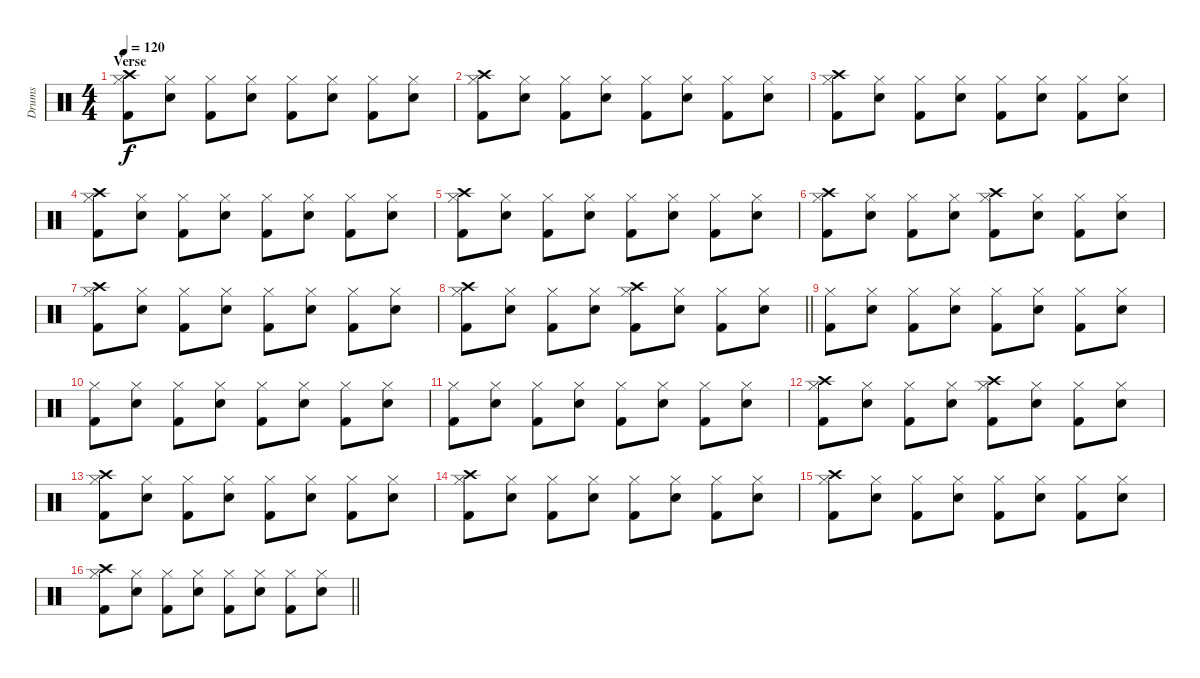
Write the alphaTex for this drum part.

\track ("Drums" "Drums") {instrument percussion}
\staff
\articulation defaults
\ts (4 4)
\section ("" "Verse")
\tempo 120
\clef neutral
\ks c
("Hi-Hat (closed)" "Kick (hit) 2" "Crash high (hit)").8{dy f} ("Hi-Hat (closed)" "Electric Snare (hit)").8 ("Hi-Hat (closed)" "Kick (hit) 2").8 ("Hi-Hat (closed)" "Electric Snare (hit)").8 ("Hi-Hat (closed)" "Kick (hit) 2").8 ("Hi-Hat (closed)" "Electric Snare (hit)").8 ("Hi-Hat (closed)" "Kick (hit) 2").8 ("Hi-Hat (closed)" "Electric Snare (hit)").8 |
("Hi-Hat (closed)" "Kick (hit) 2" "Crash high (hit)").8 ("Hi-Hat (closed)" "Electric Snare (hit)").8 ("Hi-Hat (closed)" "Kick (hit) 2").8 ("Hi-Hat (closed)" "Electric Snare (hit)").8 ("Hi-Hat (closed)" "Kick (hit) 2").8 ("Hi-Hat (closed)" "Electric Snare (hit)").8 ("Hi-Hat (closed)" "Kick (hit) 2").8 ("Hi-Hat (closed)" "Electric Snare (hit)").8 |
("Hi-Hat (closed)" "Kick (hit) 2" "Crash high (hit)").8 ("Hi-Hat (closed)" "Electric Snare (hit)").8 ("Hi-Hat (closed)" "Kick (hit) 2").8 ("Hi-Hat (closed)" "Electric Snare (hit)").8 ("Hi-Hat (closed)" "Kick (hit) 2").8 ("Hi-Hat (closed)" "Electric Snare (hit)").8 ("Hi-Hat (closed)" "Kick (hit) 2").8 ("Hi-Hat (closed)" "Electric Snare (hit)").8 |
("Hi-Hat (closed)" "Kick (hit) 2" "Crash high (hit)").8 ("Hi-Hat (closed)" "Electric Snare (hit)").8 ("Hi-Hat (closed)" "Kick (hit) 2").8 ("Hi-Hat (closed)" "Electric Snare (hit)").8 ("Hi-Hat (closed)" "Kick (hit) 2").8 ("Hi-Hat (closed)" "Electric Snare (hit)").8 ("Hi-Hat (closed)" "Kick (hit) 2").8 ("Hi-Hat (closed)" "Electric Snare (hit)").8 |
("Hi-Hat (closed)" "Kick (hit) 2" "Crash high (hit)").8 ("Hi-Hat (closed)" "Electric Snare (hit)").8 ("Hi-Hat (closed)" "Kick (hit) 2").8 ("Hi-Hat (closed)" "Electric Snare (hit)").8 ("Hi-Hat (closed)" "Kick (hit) 2").8 ("Hi-Hat (closed)" "Electric Snare (hit)").8 ("Hi-Hat (closed)" "Kick (hit) 2").8 ("Hi-Hat (closed)" "Electric Snare (hit)").8 |
("Hi-Hat (closed)" "Kick (hit) 2" "Crash high (hit)").8 ("Hi-Hat (closed)" "Electric Snare (hit)").8 ("Hi-Hat (closed)" "Kick (hit) 2").8 ("Hi-Hat (closed)" "Electric Snare (hit)").8 ("Hi-Hat (closed)" "Kick (hit) 2" "Crash high (hit)").8 ("Hi-Hat (closed)" "Electric Snare (hit)").8 ("Hi-Hat (closed)" "Kick (hit) 2").8 ("Hi-Hat (closed)" "Electric Snare (hit)").8 |
("Hi-Hat (closed)" "Kick (hit) 2" "Crash high (hit)").8 ("Hi-Hat (closed)" "Electric Snare (hit)").8 ("Hi-Hat (closed)" "Kick (hit) 2").8 ("Hi-Hat (closed)" "Electric Snare (hit)").8 ("Hi-Hat (closed)" "Kick (hit) 2").8 ("Hi-Hat (closed)" "Electric Snare (hit)").8 ("Hi-Hat (closed)" "Kick (hit) 2").8 ("Hi-Hat (closed)" "Electric Snare (hit)").8 |
\barLineRight lightlight
("Hi-Hat (closed)" "Kick (hit) 2" "Crash high (hit)").8 ("Hi-Hat (closed)" "Electric Snare (hit)").8 ("Hi-Hat (closed)" "Kick (hit) 2").8 ("Hi-Hat (closed)" "Electric Snare (hit)").8 ("Hi-Hat (closed)" "Kick (hit) 2" "Crash high (hit)").8 ("Hi-Hat (closed)" "Electric Snare (hit)").8 ("Hi-Hat (closed)" "Kick (hit) 2").8 ("Hi-Hat (closed)" "Electric Snare (hit)").8 |
("Hi-Hat (closed)" "Kick (hit) 2").8 ("Hi-Hat (closed)" "Electric Snare (hit)").8 ("Hi-Hat (closed)" "Kick (hit) 2").8 ("Hi-Hat (closed)" "Electric Snare (hit)").8 ("Hi-Hat (closed)" "Kick (hit) 2").8 ("Hi-Hat (closed)" "Electric Snare (hit)").8 ("Hi-Hat (closed)" "Kick (hit) 2").8 ("Hi-Hat (closed)" "Electric Snare (hit)").8 |
("Hi-Hat (closed)" "Kick (hit) 2").8 ("Hi-Hat (closed)" "Electric Snare (hit)").8 ("Hi-Hat (closed)" "Kick (hit) 2").8 ("Hi-Hat (closed)" "Electric Snare (hit)").8 ("Hi-Hat (closed)" "Kick (hit) 2").8 ("Hi-Hat (closed)" "Electric Snare (hit)").8 ("Hi-Hat (closed)" "Kick (hit) 2").8 ("Hi-Hat (closed)" "Electric Snare (hit)").8 |
("Hi-Hat (closed)" "Kick (hit) 2").8 ("Hi-Hat (closed)" "Electric Snare (hit)").8 ("Hi-Hat (closed)" "Kick (hit) 2").8 ("Hi-Hat (closed)" "Electric Snare (hit)").8 ("Hi-Hat (closed)" "Kick (hit) 2").8 ("Hi-Hat (closed)" "Electric Snare (hit)").8 ("Hi-Hat (closed)" "Kick (hit) 2").8 ("Hi-Hat (closed)" "Electric Snare (hit)").8 |
("Hi-Hat (closed)" "Kick (hit) 2" "Crash high (hit)").8 ("Hi-Hat (closed)" "Electric Snare (hit)").8 ("Hi-Hat (closed)" "Kick (hit) 2").8 ("Hi-Hat (closed)" "Electric Snare (hit)").8 ("Hi-Hat (closed)" "Kick (hit) 2" "Crash high (hit)").8 ("Hi-Hat (closed)" "Electric Snare (hit)").8 ("Hi-Hat (closed)" "Kick (hit) 2").8 ("Hi-Hat (closed)" "Electric Snare (hit)").8 |
("Hi-Hat (closed)" "Kick (hit) 2" "Crash high (hit)").8 ("Hi-Hat (closed)" "Electric Snare (hit)").8 ("Hi-Hat (closed)" "Kick (hit) 2").8 ("Hi-Hat (closed)" "Electric Snare (hit)").8 ("Hi-Hat (closed)" "Kick (hit) 2").8 ("Hi-Hat (closed)" "Electric Snare (hit)").8 ("Hi-Hat (closed)" "Kick (hit) 2").8 ("Hi-Hat (closed)" "Electric Snare (hit)").8 |
("Hi-Hat (closed)" "Kick (hit) 2" "Crash high (hit)").8 ("Hi-Hat (closed)" "Electric Snare (hit)").8 ("Hi-Hat (closed)" "Kick (hit) 2").8 ("Hi-Hat (closed)" "Electric Snare (hit)").8 ("Hi-Hat (closed)" "Kick (hit) 2").8 ("Hi-Hat (closed)" "Electric Snare (hit)").8 ("Hi-Hat (closed)" "Kick (hit) 2").8 ("Hi-Hat (closed)" "Electric Snare (hit)").8 |
("Hi-Hat (closed)" "Kick (hit) 2" "Crash high (hit)").8 ("Hi-Hat (closed)" "Electric Snare (hit)").8 ("Hi-Hat (closed)" "Kick (hit) 2").8 ("Hi-Hat (closed)" "Electric Snare (hit)").8 ("Hi-Hat (closed)" "Kick (hit) 2").8 ("Hi-Hat (closed)" "Electric Snare (hit)").8 ("Hi-Hat (closed)" "Kick (hit) 2").8 ("Hi-Hat (closed)" "Electric Snare (hit)").8 |
\barLineRight lightlight
("Hi-Hat (closed)" "Kick (hit) 2" "Crash high (hit)").8 ("Hi-Hat (closed)" "Electric Snare (hit)").8 ("Hi-Hat (closed)" "Kick (hit) 2").8 ("Hi-Hat (closed)" "Electric Snare (hit)").8 ("Hi-Hat (closed)" "Kick (hit) 2").8 ("Hi-Hat (closed)" "Electric Snare (hit)").8 ("Hi-Hat (closed)" "Kick (hit) 2").8 ("Hi-Hat (closed)" "Electric Snare (hit)").8
